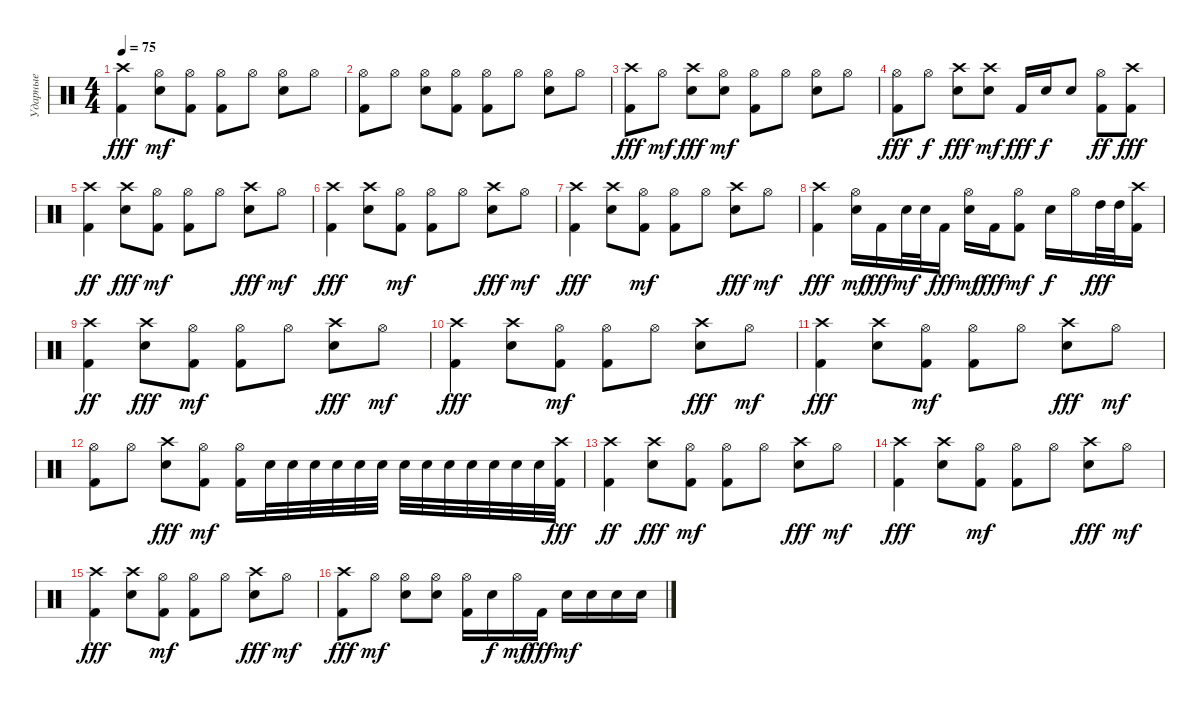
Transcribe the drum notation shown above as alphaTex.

\track ("Ударные" "Ударные") {instrument percussion}
\staff {score}
\articulation defaults
\ts (4 4)
\tempo 75
\clef neutral
\ks c
("Kick (hit) 2" "Crash high (hit)").4{dy fff} ("Snare (hit) 2" "Hi-Hat (open)").8{dy mf} ("Kick (hit) 2" "Hi-Hat (open)").8 ("Kick (hit) 2" "Hi-Hat (open)").8 "Hi-Hat (open)".8 ("Snare (hit) 2" "Hi-Hat (open)").8 "Hi-Hat (open)".8 |
("Kick (hit) 2" "Hi-Hat (open)").8 "Hi-Hat (open)".8 ("Snare (hit) 2" "Hi-Hat (open)").8 ("Kick (hit) 2" "Hi-Hat (open)").8 ("Kick (hit) 2" "Hi-Hat (open)").8 "Hi-Hat (open)".8 ("Snare (hit) 2" "Hi-Hat (open)").8 "Hi-Hat (open)".8 |
("Kick (hit) 2" "Crash high (hit)").8{dy fff} "Hi-Hat (open)".8{dy mf} ("Snare (hit) 2" "Crash high (hit)").8{dy fff} ("Snare (hit) 2" "Hi-Hat (open)").8{dy mf} ("Kick (hit) 2" "Hi-Hat (open)").8 "Hi-Hat (open)".8 ("Snare (hit) 2" "Hi-Hat (open)").8 "Hi-Hat (open)".8 |
("Kick (hit) 2" "Hi-Hat (open)").8{dy fff} "Hi-Hat (open)".8{dy f} ("Snare (hit) 2" "Crash high (hit)").8{dy fff} ("Snare (hit) 2" "Crash high (hit)").8{dy mf} "Kick (hit) 2".16{dy fff} "Snare (hit) 2".16{dy f} "Snare (hit) 2".8 ("Kick (hit) 2" "Hi-Hat (open)").8{dy ff} ("Kick (hit) 2" "Crash high (hit)").8{dy fff} |
("Kick (hit) 2" "Crash high (hit)").4{dy ff} ("Snare (hit) 2" "Crash high (hit)").8{dy fff} ("Kick (hit) 2" "Hi-Hat (open)").8{dy mf} ("Kick (hit) 2" "Hi-Hat (open)").8 "Hi-Hat (open)".8 ("Snare (hit) 2" "Crash high (hit)").8{dy fff} "Hi-Hat (open)".8{dy mf} |
("Kick (hit) 2" "Crash high (hit)").4{dy fff} ("Snare (hit) 2" "Crash high (hit)").8 ("Kick (hit) 2" "Hi-Hat (open)").8{dy mf} ("Kick (hit) 2" "Hi-Hat (open)").8 "Hi-Hat (open)".8 ("Snare (hit) 2" "Crash high (hit)").8{dy fff} "Hi-Hat (open)".8{dy mf} |
("Kick (hit) 2" "Crash high (hit)").4{dy fff} ("Snare (hit) 2" "Crash high (hit)").8 ("Kick (hit) 2" "Hi-Hat (open)").8{dy mf} ("Kick (hit) 2" "Hi-Hat (open)").8 "Hi-Hat (open)".8 ("Snare (hit) 2" "Crash high (hit)").8{dy fff} "Hi-Hat (open)".8{dy mf} |
("Kick (hit) 2" "Crash high (hit)").4{dy fff} ("Snare (hit) 2" "Hi-Hat (open)").16{dy mf} "Kick (hit) 2".16{dy fff} "Snare (hit) 2".32{dy mf} "Snare (hit) 2".32 "Kick (hit) 2".16{dy fff} ("Snare (hit) 2" "Hi-Hat (open)").16{dy mf} "Kick (hit) 2".16{dy fff} ("Kick (hit) 2" "Hi-Hat (open)").8{dy mf} "Snare (hit) 2".16{dy f} "Hi-Hat (open)".16 "High Tom (hit)".32{dy fff} "High Tom (hit)".32 ("Kick (hit) 2" "Crash high (hit)").16 |
("Kick (hit) 2" "Crash high (hit)").4{dy ff} ("Snare (hit) 2" "Crash high (hit)").8{dy fff} ("Kick (hit) 2" "Hi-Hat (open)").8{dy mf} ("Kick (hit) 2" "Hi-Hat (open)").8 "Hi-Hat (open)".8 ("Snare (hit) 2" "Crash high (hit)").8{dy fff} "Hi-Hat (open)".8{dy mf} |
("Kick (hit) 2" "Crash high (hit)").4{dy fff} ("Snare (hit) 2" "Crash high (hit)").8 ("Kick (hit) 2" "Hi-Hat (open)").8{dy mf} ("Kick (hit) 2" "Hi-Hat (open)").8 "Hi-Hat (open)".8 ("Snare (hit) 2" "Crash high (hit)").8{dy fff} "Hi-Hat (open)".8{dy mf} |
("Kick (hit) 2" "Crash high (hit)").4{dy fff} ("Snare (hit) 2" "Crash high (hit)").8 ("Kick (hit) 2" "Hi-Hat (open)").8{dy mf} ("Kick (hit) 2" "Hi-Hat (open)").8 "Hi-Hat (open)".8 ("Snare (hit) 2" "Crash high (hit)").8{dy fff} "Hi-Hat (open)".8{dy mf} |
("Kick (hit) 2" "Hi-Hat (open)").8 "Hi-Hat (open)".8 ("Snare (hit) 2" "Crash high (hit)").8{dy fff} ("Kick (hit) 2" "Hi-Hat (open)").8{dy mf} ("Kick (hit) 2" "Hi-Hat (open)").16 "Snare (hit) 2".32 "Snare (hit) 2".32 "Snare (hit) 2".32 "Snare (hit) 2".32 "Snare (hit) 2".32 "Snare (hit) 2".32 "Snare (hit) 2".32 "Snare (hit) 2".32 "Snare (hit) 2".32 "Snare (hit) 2".32 "Snare (hit) 2".32 "Snare (hit) 2".32 "Snare (hit) 2".32 ("Kick (hit) 2" "Crash high (hit)").32{dy fff} |
("Kick (hit) 2" "Crash high (hit)").4{dy ff} ("Snare (hit) 2" "Crash high (hit)").8{dy fff} ("Kick (hit) 2" "Hi-Hat (open)").8{dy mf} ("Kick (hit) 2" "Hi-Hat (open)").8 "Hi-Hat (open)".8 ("Snare (hit) 2" "Crash high (hit)").8{dy fff} "Hi-Hat (open)".8{dy mf} |
("Kick (hit) 2" "Crash high (hit)").4{dy fff} ("Snare (hit) 2" "Crash high (hit)").8 ("Kick (hit) 2" "Hi-Hat (open)").8{dy mf} ("Kick (hit) 2" "Hi-Hat (open)").8 "Hi-Hat (open)".8 ("Snare (hit) 2" "Crash high (hit)").8{dy fff} "Hi-Hat (open)".8{dy mf} |
("Kick (hit) 2" "Crash high (hit)").4{dy fff} ("Snare (hit) 2" "Crash high (hit)").8 ("Kick (hit) 2" "Hi-Hat (open)").8{dy mf} ("Kick (hit) 2" "Hi-Hat (open)").8 "Hi-Hat (open)".8 ("Snare (hit) 2" "Crash high (hit)").8{dy fff} "Hi-Hat (open)".8{dy mf} |
("Kick (hit) 2" "Crash high (hit)").8{dy fff} "Hi-Hat (open)".8{dy mf} ("Snare (hit) 2" "Hi-Hat (open)").8 ("Snare (hit) 2" "Hi-Hat (open)").8 ("Kick (hit) 2" "Hi-Hat (open)").16 "Snare (hit) 2".16{dy f} "Hi-Hat (open)".16{dy mf} "Kick (hit) 2".16{dy fff} "Snare (hit) 2".16{dy mf} "Snare (hit) 2".16 "Snare (hit) 2".16 "Snare (hit) 2".16
